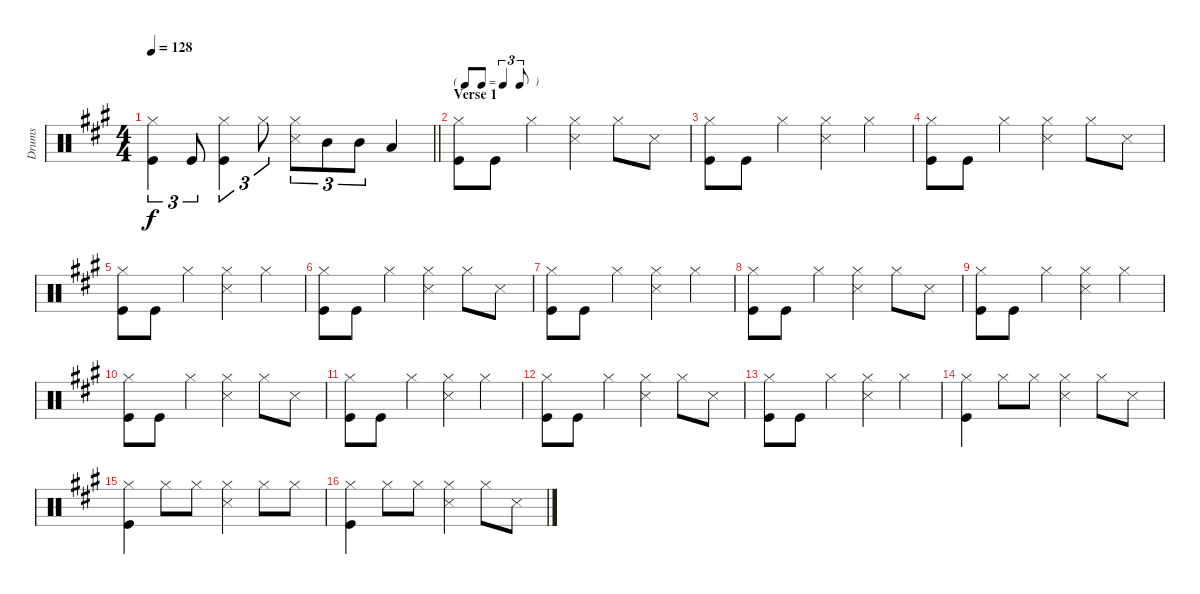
\track ("Drums" "Drums") {instrument percussion}
\staff {score}
\articulation defaults
\ts (4 4)
\tempo 128
\clef neutral
\barLineRight lightlight
\ks a
("Hi-Hat (closed)" "Kick (hit)").4{tu (3 2) dy f} "Kick (hit)".8{tu (3 2)} ("Hi-Hat (closed)" "Kick (hit)").4{tu (3 2)} "Hi-Hat (closed)".8{tu (3 2)} ("Hi-Hat (closed)" "Snare (side stick) 3").8{tu (3 2)} "Mid Tom (hit)".8{tu (3 2)} "Mid Tom (hit)".8{tu (3 2)} "Low Tom (hit)".4 |
\tf triplet8th
\section ("" "Verse 1")
("Hi-Hat (closed)" "Kick (hit)").8 "Kick (hit)".8 "Hi-Hat (closed)".4 ("Hi-Hat (closed)" "Snare (side stick) 3").4 "Hi-Hat (closed)".8 "Snare (side stick) 3".8 |
("Hi-Hat (closed)" "Kick (hit)").8 "Kick (hit)".8 "Hi-Hat (closed)".4 ("Hi-Hat (closed)" "Snare (side stick) 3").4 "Hi-Hat (closed)".4 |
("Hi-Hat (closed)" "Kick (hit)").8 "Kick (hit)".8 "Hi-Hat (closed)".4 ("Hi-Hat (closed)" "Snare (side stick) 3").4 "Hi-Hat (closed)".8 "Snare (side stick) 3".8 |
("Hi-Hat (closed)" "Kick (hit)").8 "Kick (hit)".8 "Hi-Hat (closed)".4 ("Hi-Hat (closed)" "Snare (side stick) 3").4 "Hi-Hat (closed)".4 |
("Hi-Hat (closed)" "Kick (hit)").8 "Kick (hit)".8 "Hi-Hat (closed)".4 ("Hi-Hat (closed)" "Snare (side stick) 3").4 "Hi-Hat (closed)".8 "Snare (side stick) 3".8 |
("Hi-Hat (closed)" "Kick (hit)").8 "Kick (hit)".8 "Hi-Hat (closed)".4 ("Hi-Hat (closed)" "Snare (side stick) 3").4 "Hi-Hat (closed)".4 |
("Hi-Hat (closed)" "Kick (hit)").8 "Kick (hit)".8 "Hi-Hat (closed)".4 ("Hi-Hat (closed)" "Snare (side stick) 3").4 "Hi-Hat (closed)".8 "Snare (side stick) 3".8 |
("Hi-Hat (closed)" "Kick (hit)").8 "Kick (hit)".8 "Hi-Hat (closed)".4 ("Hi-Hat (closed)" "Snare (side stick) 3").4 "Hi-Hat (closed)".4 |
("Hi-Hat (closed)" "Kick (hit)").8 "Kick (hit)".8 "Hi-Hat (closed)".4 ("Hi-Hat (closed)" "Snare (side stick) 3").4 "Hi-Hat (closed)".8 "Snare (side stick) 3".8 |
("Hi-Hat (closed)" "Kick (hit)").8 "Kick (hit)".8 "Hi-Hat (closed)".4 ("Hi-Hat (closed)" "Snare (side stick) 3").4 "Hi-Hat (closed)".4 |
("Hi-Hat (closed)" "Kick (hit)").8 "Kick (hit)".8 "Hi-Hat (closed)".4 ("Hi-Hat (closed)" "Snare (side stick) 3").4 "Hi-Hat (closed)".8 "Snare (side stick) 3".8 |
("Hi-Hat (closed)" "Kick (hit)").8 "Kick (hit)".8 "Hi-Hat (closed)".4 ("Hi-Hat (closed)" "Snare (side stick) 3").4 "Hi-Hat (closed)".4 |
("Hi-Hat (closed)" "Kick (hit)").4 "Hi-Hat (closed)".8 "Hi-Hat (closed)".8 ("Hi-Hat (closed)" "Snare (side stick) 3").4 "Hi-Hat (closed)".8 "Snare (side stick) 3".8 |
("Hi-Hat (closed)" "Kick (hit)").4 "Hi-Hat (closed)".8 "Hi-Hat (closed)".8 ("Hi-Hat (closed)" "Snare (side stick) 3").4 "Hi-Hat (closed)".8 "Hi-Hat (closed)".8 |
("Hi-Hat (closed)" "Kick (hit)").4 "Hi-Hat (closed)".8 "Hi-Hat (closed)".8 ("Hi-Hat (closed)" "Snare (side stick) 3").4 "Hi-Hat (closed)".8 "Snare (side stick) 3".8
